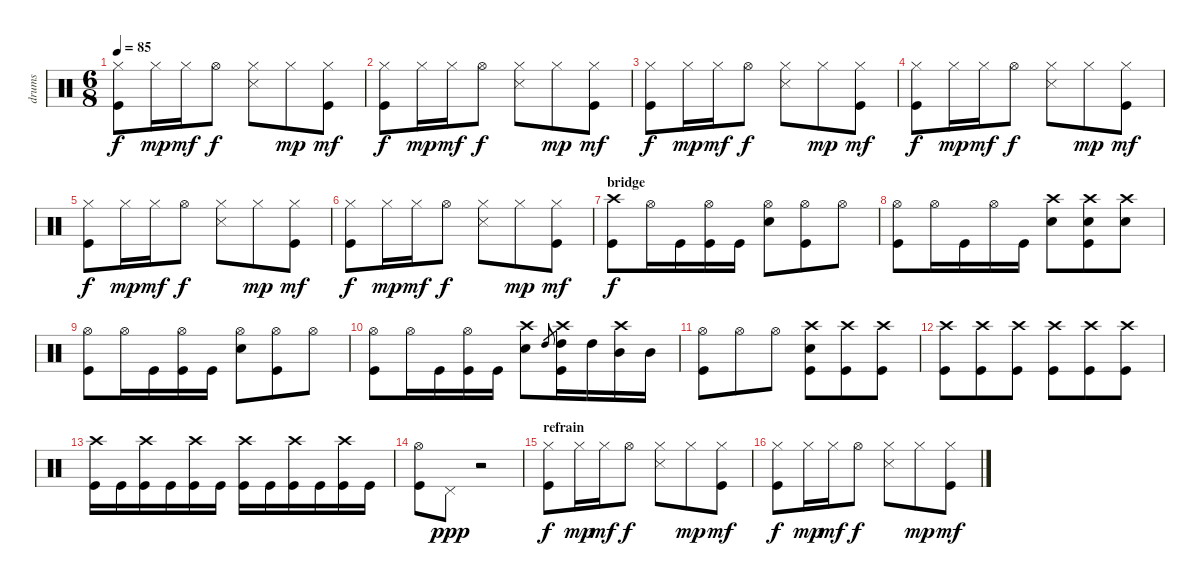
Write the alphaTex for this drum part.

\track ("drums" "drums") {instrument percussion}
\staff {score}
\articulation defaults
\ts (6 8)
\tempo 85
\clef neutral
\ks c
("Hi-Hat (closed)" "Kick (hit)").8{dy f} "Hi-Hat (closed)".16{dy mp} "Hi-Hat (closed)".16{dy mf} "Hi-Hat (open)".8{dy f} ("Hi-Hat (closed)" "Snare (side stick) 3").8 "Hi-Hat (closed)".8{dy mp} ("Hi-Hat (closed)" "Kick (hit)").8{dy mf} |
("Hi-Hat (closed)" "Kick (hit)").8{dy f} "Hi-Hat (closed)".16{dy mp} "Hi-Hat (closed)".16{dy mf} "Hi-Hat (open)".8{dy f} ("Hi-Hat (closed)" "Snare (side stick) 3").8 "Hi-Hat (closed)".8{dy mp} ("Hi-Hat (closed)" "Kick (hit)").8{dy mf} |
("Hi-Hat (closed)" "Kick (hit)").8{dy f} "Hi-Hat (closed)".16{dy mp} "Hi-Hat (closed)".16{dy mf} "Hi-Hat (open)".8{dy f} ("Hi-Hat (closed)" "Snare (side stick) 3").8 "Hi-Hat (closed)".8{dy mp} ("Hi-Hat (closed)" "Kick (hit)").8{dy mf} |
("Hi-Hat (closed)" "Kick (hit)").8{dy f} "Hi-Hat (closed)".16{dy mp} "Hi-Hat (closed)".16{dy mf} "Hi-Hat (open)".8{dy f} ("Hi-Hat (closed)" "Snare (side stick) 3").8 "Hi-Hat (closed)".8{dy mp} ("Hi-Hat (closed)" "Kick (hit)").8{dy mf} |
("Hi-Hat (closed)" "Kick (hit)").8{dy f} "Hi-Hat (closed)".16{dy mp} "Hi-Hat (closed)".16{dy mf} "Hi-Hat (open)".8{dy f} ("Hi-Hat (closed)" "Snare (side stick) 3").8 "Hi-Hat (closed)".8{dy mp} ("Hi-Hat (closed)" "Kick (hit)").8{dy mf} |
("Hi-Hat (closed)" "Kick (hit)").8{dy f} "Hi-Hat (closed)".16{dy mp} "Hi-Hat (closed)".16{dy mf} "Hi-Hat (open)".8{dy f} ("Hi-Hat (closed)" "Snare (side stick) 3").8 "Hi-Hat (closed)".8{dy mp} ("Hi-Hat (closed)" "Kick (hit)").8{dy mf} |
\section ("" "bridge")
("Crash high (hit)" "Kick (hit)").8{dy f} "Hi-Hat (open)".16 "Kick (hit)".16 ("Hi-Hat (open)" "Kick (hit)").16 "Kick (hit)".16 ("Hi-Hat (open)" "Electric Snare (hit)").8 ("Hi-Hat (open)" "Kick (hit)").8 "Hi-Hat (open)".8 |
("Hi-Hat (open)" "Kick (hit)").8 "Hi-Hat (open)".16 "Kick (hit)".16 "Hi-Hat (open)".16 "Kick (hit)".16 ("Crash high (hit)" "Electric Snare (hit)").8 ("Crash high (hit)" "Electric Snare (hit)" "Kick (hit)").8 ("Crash high (hit)" "Electric Snare (hit)").8 |
("Hi-Hat (open)" "Kick (hit)").8 "Hi-Hat (open)".16 "Kick (hit)".16 ("Hi-Hat (open)" "Kick (hit)").16 "Kick (hit)".16 ("Hi-Hat (open)" "Electric Snare (hit)").8 ("Hi-Hat (open)" "Kick (hit)").8 "Hi-Hat (open)".8 |
("Hi-Hat (open)" "Kick (hit)").8 "Hi-Hat (open)".16 "Kick (hit)".16 ("Hi-Hat (open)" "Kick (hit)").16 "Kick (hit)".16 ("Crash high (hit)" "Electric Snare (hit)").8 "High Tom (hit)".8{gr} ("Crash high (hit)" "High Tom (hit)" "Kick (hit)").16 "High Tom (hit)".16 ("Crash high (hit)" "Mid Tom (hit)").16 "Mid Tom (hit)".16 |
("Hi-Hat (open)" "Kick (hit)").8 "Hi-Hat (open)".8 "Hi-Hat (open)".8 ("Crash high (hit)" "Electric Snare (hit)" "Kick (hit)").8 ("Crash high (hit)" "Kick (hit)").8 ("Crash high (hit)" "Kick (hit)").8 |
("Crash high (hit)" "Kick (hit)").8 ("Crash high (hit)" "Kick (hit)").8 ("Crash high (hit)" "Kick (hit)").8 ("Crash high (hit)" "Kick (hit)").8 ("Crash high (hit)" "Kick (hit)").8 ("Crash high (hit)" "Kick (hit)").8 |
("Crash high (hit)" "Kick (hit)").16 "Kick (hit)".16 ("Crash high (hit)" "Kick (hit)").16 "Kick (hit)".16 ("Crash high (hit)" "Kick (hit)").16 "Kick (hit)".16 ("Crash high (hit)" "Kick (hit)").16 "Kick (hit)".16 ("Crash high (hit)" "Kick (hit)").16 "Kick (hit)".16 ("Crash high (hit)" "Kick (hit)").16 "Kick (hit)".16 |
("Hi-Hat (open)" "Kick (hit)").8 "Pedal Hi-Hat (hit)".8{dy ppp} r.2 |
\section ("" "refrain")
("Hi-Hat (closed)" "Kick (hit)").8{dy f} "Hi-Hat (closed)".16{dy mp} "Hi-Hat (closed)".16{dy mf} "Hi-Hat (open)".8{dy f} ("Hi-Hat (closed)" "Snare (side stick) 3").8 "Hi-Hat (closed)".8{dy mp} ("Hi-Hat (closed)" "Kick (hit)").8{dy mf} |
("Hi-Hat (closed)" "Kick (hit)").8{dy f} "Hi-Hat (closed)".16{dy mp} "Hi-Hat (closed)".16{dy mf} "Hi-Hat (open)".8{dy f} ("Hi-Hat (closed)" "Snare (side stick) 3").8 "Hi-Hat (closed)".8{dy mp} ("Hi-Hat (closed)" "Kick (hit)").8{dy mf}
